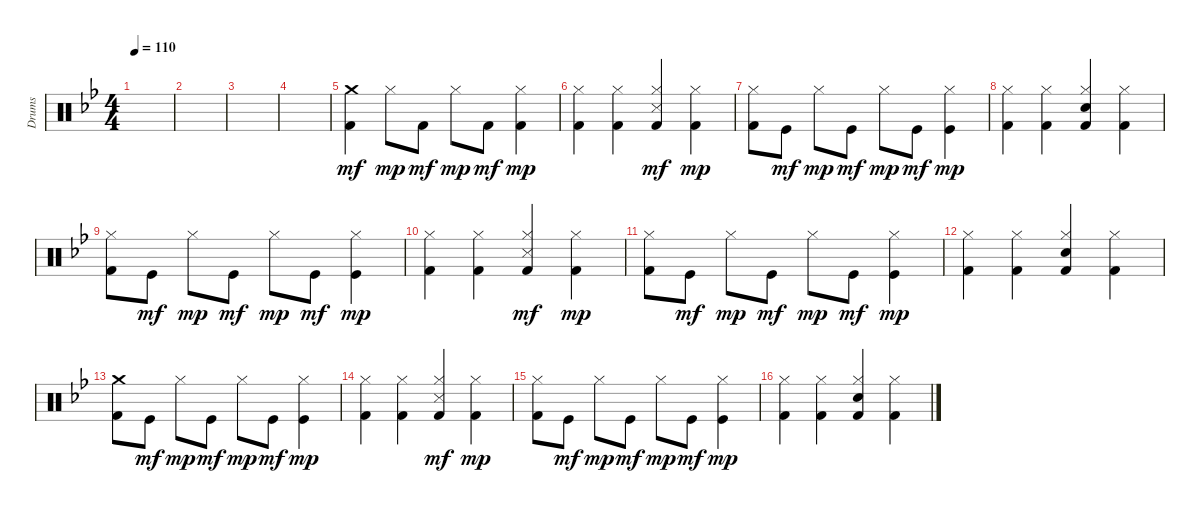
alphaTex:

\track ("Drums" "Drums") {instrument percussion}
\staff {score}
\articulation defaults
\ts (4 4)
\tempo 110
\clef neutral
\ks gminor
|
|
|
|
("Crash medium (hit)" "Kick (hit) 2").4{dy mf} "Hi-Hat (closed)".8{dy mp} "Kick (hit) 2".8{dy mf} "Hi-Hat (closed)".8{dy mp} "Kick (hit) 2".8{dy mf} ("Kick (hit) 2" "Hi-Hat (closed)").4{dy mp} |
("Kick (hit) 2" "Hi-Hat (closed)").4 ("Kick (hit) 2" "Hi-Hat (closed)").4 ("Kick (hit) 2" "Hi-Hat (closed)" "Snare (side stick) 3").4{dy mf} ("Kick (hit) 2" "Hi-Hat (closed)").4{dy mp} |
("Kick (hit) 2" "Hi-Hat (closed)").8 "Kick (hit)".8{dy mf} "Hi-Hat (closed)".8{dy mp} "Kick (hit)".8{dy mf} "Hi-Hat (closed)".8{dy mp} "Kick (hit)".8{dy mf} ("Kick (hit)" "Hi-Hat (closed)").4{dy mp} |
("Kick (hit) 2" "Hi-Hat (closed)").4 ("Kick (hit) 2" "Hi-Hat (closed)").4 ("Kick (hit) 2" "Electric Snare (hit)" "Hi-Hat (closed)").4 ("Kick (hit) 2" "Hi-Hat (closed)").4 |
("Kick (hit) 2" "Hi-Hat (closed)").8 "Kick (hit)".8{dy mf} "Hi-Hat (closed)".8{dy mp} "Kick (hit)".8{dy mf} "Hi-Hat (closed)".8{dy mp} "Kick (hit)".8{dy mf} ("Kick (hit)" "Hi-Hat (closed)").4{dy mp} |
("Kick (hit) 2" "Hi-Hat (closed)").4 ("Kick (hit) 2" "Hi-Hat (closed)").4 ("Kick (hit) 2" "Hi-Hat (closed)" "Snare (side stick) 3").4{dy mf} ("Kick (hit) 2" "Hi-Hat (closed)").4{dy mp} |
("Kick (hit) 2" "Hi-Hat (closed)").8 "Kick (hit)".8{dy mf} "Hi-Hat (closed)".8{dy mp} "Kick (hit)".8{dy mf} "Hi-Hat (closed)".8{dy mp} "Kick (hit)".8{dy mf} ("Kick (hit)" "Hi-Hat (closed)").4{dy mp} |
("Kick (hit) 2" "Hi-Hat (closed)").4 ("Kick (hit) 2" "Hi-Hat (closed)").4 ("Kick (hit) 2" "Electric Snare (hit)" "Hi-Hat (closed)").4 ("Kick (hit) 2" "Hi-Hat (closed)").4 |
("Kick (hit) 2" "Crash medium (hit)").8 "Kick (hit)".8{dy mf} "Hi-Hat (closed)".8{dy mp} "Kick (hit)".8{dy mf} "Hi-Hat (closed)".8{dy mp} "Kick (hit)".8{dy mf} ("Kick (hit)" "Hi-Hat (closed)").4{dy mp} |
("Kick (hit) 2" "Hi-Hat (closed)").4 ("Kick (hit) 2" "Hi-Hat (closed)").4 ("Kick (hit) 2" "Hi-Hat (closed)" "Snare (side stick) 3").4{dy mf} ("Kick (hit) 2" "Hi-Hat (closed)").4{dy mp} |
("Kick (hit) 2" "Hi-Hat (closed)").8 "Kick (hit)".8{dy mf} "Hi-Hat (closed)".8{dy mp} "Kick (hit)".8{dy mf} "Hi-Hat (closed)".8{dy mp} "Kick (hit)".8{dy mf} ("Kick (hit)" "Hi-Hat (closed)").4{dy mp} |
("Kick (hit) 2" "Hi-Hat (closed)").4 ("Kick (hit) 2" "Hi-Hat (closed)").4 ("Kick (hit) 2" "Electric Snare (hit)" "Hi-Hat (closed)").4 ("Kick (hit) 2" "Hi-Hat (closed)").4
